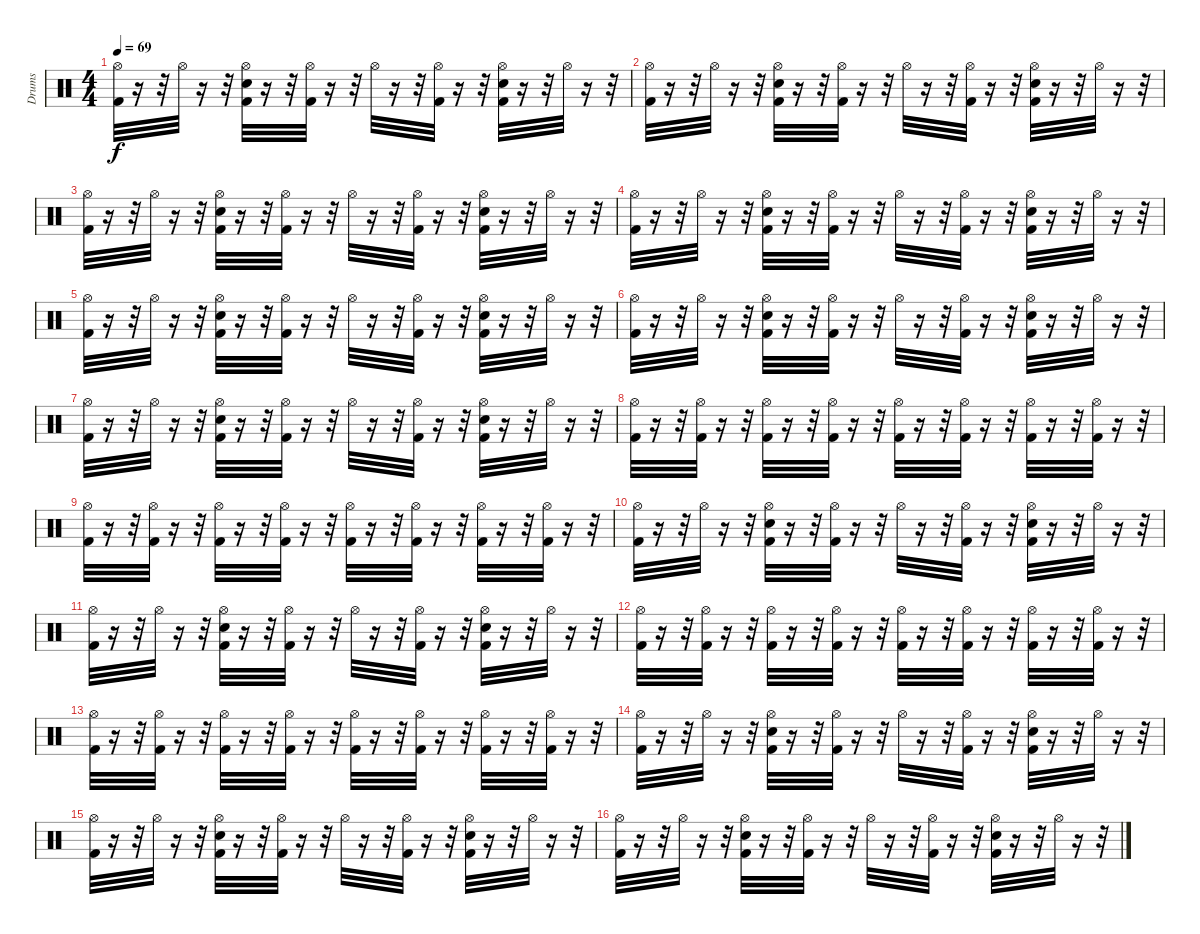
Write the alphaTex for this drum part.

\track ("Drums" "Drums") {instrument percussion}
\staff {score}
\articulation defaults
\ts (4 4)
\tempo 69
\clef neutral
\ks c
("Hi-Hat (open)" "Kick (hit) 2").32{dy f} r.16 r.32 "Hi-Hat (open)".32 r.16 r.32 ("Electric Snare (hit)" "Hi-Hat (open)" "Kick (hit) 2").32 r.16 r.32 ("Kick (hit) 2" "Hi-Hat (open)").32 r.16 r.32 "Hi-Hat (open)".32 r.16 r.32 ("Kick (hit) 2" "Hi-Hat (open)").32 r.16 r.32 ("Electric Snare (hit)" "Kick (hit) 2" "Hi-Hat (open)").32 r.16 r.32 "Hi-Hat (open)".32 r.16 r.32 |
("Hi-Hat (open)" "Kick (hit) 2").32 r.16 r.32 "Hi-Hat (open)".32 r.16 r.32 ("Electric Snare (hit)" "Hi-Hat (open)" "Kick (hit) 2").32 r.16 r.32 ("Kick (hit) 2" "Hi-Hat (open)").32 r.16 r.32 "Hi-Hat (open)".32 r.16 r.32 ("Kick (hit) 2" "Hi-Hat (open)").32 r.16 r.32 ("Electric Snare (hit)" "Kick (hit) 2" "Hi-Hat (open)").32 r.16 r.32 "Hi-Hat (open)".32 r.16 r.32 |
("Hi-Hat (open)" "Kick (hit) 2").32 r.16 r.32 "Hi-Hat (open)".32 r.16 r.32 ("Electric Snare (hit)" "Hi-Hat (open)" "Kick (hit) 2").32 r.16 r.32 ("Kick (hit) 2" "Hi-Hat (open)").32 r.16 r.32 "Hi-Hat (open)".32 r.16 r.32 ("Kick (hit) 2" "Hi-Hat (open)").32 r.16 r.32 ("Electric Snare (hit)" "Kick (hit) 2" "Hi-Hat (open)").32 r.16 r.32 "Hi-Hat (open)".32 r.16 r.32 |
("Hi-Hat (open)" "Kick (hit) 2").32 r.16 r.32 "Hi-Hat (open)".32 r.16 r.32 ("Electric Snare (hit)" "Hi-Hat (open)" "Kick (hit) 2").32 r.16 r.32 ("Kick (hit) 2" "Hi-Hat (open)").32 r.16 r.32 "Hi-Hat (open)".32 r.16 r.32 ("Kick (hit) 2" "Hi-Hat (open)").32 r.16 r.32 ("Electric Snare (hit)" "Kick (hit) 2" "Hi-Hat (open)").32 r.16 r.32 "Hi-Hat (open)".32 r.16 r.32 |
("Hi-Hat (open)" "Kick (hit) 2").32 r.16 r.32 "Hi-Hat (open)".32 r.16 r.32 ("Electric Snare (hit)" "Hi-Hat (open)" "Kick (hit) 2").32 r.16 r.32 ("Kick (hit) 2" "Hi-Hat (open)").32 r.16 r.32 "Hi-Hat (open)".32 r.16 r.32 ("Kick (hit) 2" "Hi-Hat (open)").32 r.16 r.32 ("Electric Snare (hit)" "Kick (hit) 2" "Hi-Hat (open)").32 r.16 r.32 "Hi-Hat (open)".32 r.16 r.32 |
("Hi-Hat (open)" "Kick (hit) 2").32 r.16 r.32 "Hi-Hat (open)".32 r.16 r.32 ("Electric Snare (hit)" "Hi-Hat (open)" "Kick (hit) 2").32 r.16 r.32 ("Kick (hit) 2" "Hi-Hat (open)").32 r.16 r.32 "Hi-Hat (open)".32 r.16 r.32 ("Kick (hit) 2" "Hi-Hat (open)").32 r.16 r.32 ("Electric Snare (hit)" "Kick (hit) 2" "Hi-Hat (open)").32 r.16 r.32 "Hi-Hat (open)".32 r.16 r.32 |
("Hi-Hat (open)" "Kick (hit) 2").32 r.16 r.32 "Hi-Hat (open)".32 r.16 r.32 ("Electric Snare (hit)" "Hi-Hat (open)" "Kick (hit) 2").32 r.16 r.32 ("Kick (hit) 2" "Hi-Hat (open)").32 r.16 r.32 "Hi-Hat (open)".32 r.16 r.32 ("Kick (hit) 2" "Hi-Hat (open)").32 r.16 r.32 ("Electric Snare (hit)" "Kick (hit) 2" "Hi-Hat (open)").32 r.16 r.32 "Hi-Hat (open)".32 r.16 r.32 |
("Kick (hit) 2" "Hi-Hat (open)").32 r.16 r.32 ("Hi-Hat (open)" "Kick (hit) 2").32 r.16 r.32 ("Hi-Hat (open)" "Kick (hit) 2").32 r.16 r.32 ("Hi-Hat (open)" "Kick (hit) 2").32 r.16 r.32 ("Hi-Hat (open)" "Kick (hit) 2").32 r.16 r.32 ("Hi-Hat (open)" "Kick (hit) 2").32 r.16 r.32 ("Hi-Hat (open)" "Kick (hit) 2").32 r.16 r.32 ("Hi-Hat (open)" "Kick (hit) 2").32 r.16 r.32 |
("Kick (hit) 2" "Hi-Hat (open)").32 r.16 r.32 ("Hi-Hat (open)" "Kick (hit) 2").32 r.16 r.32 ("Hi-Hat (open)" "Kick (hit) 2").32 r.16 r.32 ("Hi-Hat (open)" "Kick (hit) 2").32 r.16 r.32 ("Hi-Hat (open)" "Kick (hit) 2").32 r.16 r.32 ("Hi-Hat (open)" "Kick (hit) 2").32 r.16 r.32 ("Hi-Hat (open)" "Kick (hit) 2").32 r.16 r.32 ("Hi-Hat (open)" "Kick (hit) 2").32 r.16 r.32 |
("Hi-Hat (open)" "Kick (hit) 2").32 r.16 r.32 "Hi-Hat (open)".32 r.16 r.32 ("Electric Snare (hit)" "Hi-Hat (open)" "Kick (hit) 2").32 r.16 r.32 ("Kick (hit) 2" "Hi-Hat (open)").32 r.16 r.32 "Hi-Hat (open)".32 r.16 r.32 ("Kick (hit) 2" "Hi-Hat (open)").32 r.16 r.32 ("Electric Snare (hit)" "Kick (hit) 2" "Hi-Hat (open)").32 r.16 r.32 "Hi-Hat (open)".32 r.16 r.32 |
("Hi-Hat (open)" "Kick (hit) 2").32 r.16 r.32 "Hi-Hat (open)".32 r.16 r.32 ("Electric Snare (hit)" "Hi-Hat (open)" "Kick (hit) 2").32 r.16 r.32 ("Kick (hit) 2" "Hi-Hat (open)").32 r.16 r.32 "Hi-Hat (open)".32 r.16 r.32 ("Kick (hit) 2" "Hi-Hat (open)").32 r.16 r.32 ("Electric Snare (hit)" "Kick (hit) 2" "Hi-Hat (open)").32 r.16 r.32 "Hi-Hat (open)".32 r.16 r.32 |
("Kick (hit) 2" "Hi-Hat (open)").32 r.16 r.32 ("Hi-Hat (open)" "Kick (hit) 2").32 r.16 r.32 ("Hi-Hat (open)" "Kick (hit) 2").32 r.16 r.32 ("Hi-Hat (open)" "Kick (hit) 2").32 r.16 r.32 ("Hi-Hat (open)" "Kick (hit) 2").32 r.16 r.32 ("Hi-Hat (open)" "Kick (hit) 2").32 r.16 r.32 ("Hi-Hat (open)" "Kick (hit) 2").32 r.16 r.32 ("Hi-Hat (open)" "Kick (hit) 2").32 r.16 r.32 |
("Kick (hit) 2" "Hi-Hat (open)").32 r.16 r.32 ("Hi-Hat (open)" "Kick (hit) 2").32 r.16 r.32 ("Hi-Hat (open)" "Kick (hit) 2").32 r.16 r.32 ("Hi-Hat (open)" "Kick (hit) 2").32 r.16 r.32 ("Hi-Hat (open)" "Kick (hit) 2").32 r.16 r.32 ("Hi-Hat (open)" "Kick (hit) 2").32 r.16 r.32 ("Hi-Hat (open)" "Kick (hit) 2").32 r.16 r.32 ("Hi-Hat (open)" "Kick (hit) 2").32 r.16 r.32 |
("Hi-Hat (open)" "Kick (hit) 2").32 r.16 r.32 "Hi-Hat (open)".32 r.16 r.32 ("Electric Snare (hit)" "Hi-Hat (open)" "Kick (hit) 2").32 r.16 r.32 ("Kick (hit) 2" "Hi-Hat (open)").32 r.16 r.32 "Hi-Hat (open)".32 r.16 r.32 ("Kick (hit) 2" "Hi-Hat (open)").32 r.16 r.32 ("Electric Snare (hit)" "Kick (hit) 2" "Hi-Hat (open)").32 r.16 r.32 "Hi-Hat (open)".32 r.16 r.32 |
("Hi-Hat (open)" "Kick (hit) 2").32 r.16 r.32 "Hi-Hat (open)".32 r.16 r.32 ("Electric Snare (hit)" "Hi-Hat (open)" "Kick (hit) 2").32 r.16 r.32 ("Kick (hit) 2" "Hi-Hat (open)").32 r.16 r.32 "Hi-Hat (open)".32 r.16 r.32 ("Kick (hit) 2" "Hi-Hat (open)").32 r.16 r.32 ("Electric Snare (hit)" "Kick (hit) 2" "Hi-Hat (open)").32 r.16 r.32 "Hi-Hat (open)".32 r.16 r.32 |
("Hi-Hat (open)" "Kick (hit) 2").32 r.16 r.32 "Hi-Hat (open)".32 r.16 r.32 ("Electric Snare (hit)" "Hi-Hat (open)" "Kick (hit) 2").32 r.16 r.32 ("Kick (hit) 2" "Hi-Hat (open)").32 r.16 r.32 "Hi-Hat (open)".32 r.16 r.32 ("Kick (hit) 2" "Hi-Hat (open)").32 r.16 r.32 ("Electric Snare (hit)" "Kick (hit) 2" "Hi-Hat (open)").32 r.16 r.32 "Hi-Hat (open)".32 r.16 r.32
